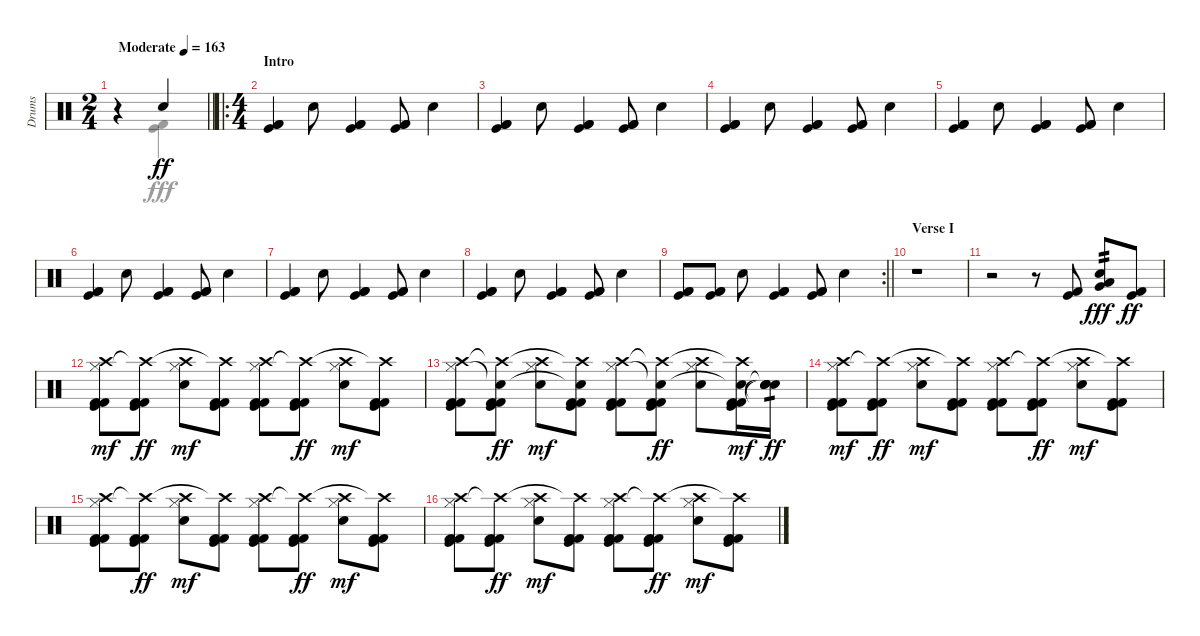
\track ("Drums" "Drums") {instrument percussion}
\staff {score}
\articulation defaults
\voice
\ts (2 4)
\tempo (163 "Moderate")
\clef neutral
\barLineRight lightlight
\ks c
r.4{dy ff} "Electric Snare (hit)".4 |
\ro
\ts (4 4)
\section ("" "Intro")
("Kick (hit) 2" "Kick (hit) 2" "Kick (hit)").4 "Electric Snare (hit)".8 ("Kick (hit) 2" "Kick (hit) 2" "Kick (hit)").4 ("Kick (hit) 2" "Kick (hit) 2" "Kick (hit)").8 "Electric Snare (hit)".4 |
("Kick (hit) 2" "Kick (hit) 2" "Kick (hit)").4 "Electric Snare (hit)".8 ("Kick (hit) 2" "Kick (hit) 2" "Kick (hit)").4 ("Kick (hit) 2" "Kick (hit) 2" "Kick (hit)").8 "Electric Snare (hit)".4 |
("Kick (hit) 2" "Kick (hit) 2" "Kick (hit)").4 "Electric Snare (hit)".8 ("Kick (hit) 2" "Kick (hit) 2" "Kick (hit)").4 ("Kick (hit) 2" "Kick (hit) 2" "Kick (hit)").8 "Electric Snare (hit)".4 |
("Kick (hit) 2" "Kick (hit) 2" "Kick (hit)").4 "Electric Snare (hit)".8 ("Kick (hit) 2" "Kick (hit) 2" "Kick (hit)").4 ("Kick (hit) 2" "Kick (hit) 2" "Kick (hit)").8 "Electric Snare (hit)".4 |
("Kick (hit) 2" "Kick (hit) 2" "Kick (hit)").4 "Electric Snare (hit)".8 ("Kick (hit) 2" "Kick (hit) 2" "Kick (hit)").4 ("Kick (hit) 2" "Kick (hit) 2" "Kick (hit)").8 "Electric Snare (hit)".4 |
("Kick (hit) 2" "Kick (hit) 2" "Kick (hit)").4 "Electric Snare (hit)".8 ("Kick (hit) 2" "Kick (hit) 2" "Kick (hit)").4 ("Kick (hit) 2" "Kick (hit) 2" "Kick (hit)").8 "Electric Snare (hit)".4 |
("Kick (hit) 2" "Kick (hit) 2" "Kick (hit)").4 "Electric Snare (hit)".8 ("Kick (hit) 2" "Kick (hit) 2" "Kick (hit)").4 ("Kick (hit) 2" "Kick (hit) 2" "Kick (hit)").8 "Electric Snare (hit)".4 |
\rc 2
\barLineRight lightlight
("Kick (hit) 2" "Kick (hit) 2" "Kick (hit)").8 ("Kick (hit) 2" "Kick (hit) 2" "Kick (hit)").8 "Electric Snare (hit)".8 ("Kick (hit) 2" "Kick (hit) 2" "Kick (hit)").4 ("Kick (hit) 2" "Kick (hit) 2" "Kick (hit)").8 "Electric Snare (hit)".4 |
\section ("" "Verse I")
r.1 |
r.2 r.8 ("Kick (hit) 2" "Kick (hit)").8 ("Very Low Tom (hit)" "Low Floor Tom (hit)" "Electric Snare (hit)").8{tp 2 dy fff} ("Kick (hit)" "Kick (hit) 2").8{dy ff} |
("Kick (hit) 2" "Kick (hit) 2" "Kick (hit)" "Hi-Hat (closed)" "Crash high (hit)").8{dy mf} ("Kick (hit) 2" "Kick (hit) 2" "Kick (hit)" "Crash high (hit)"{t}).8{dy ff} ("Electric Snare (hit)" "Hi-Hat (closed)" "Crash high (hit)").8{dy mf} ("Kick (hit) 2" "Kick (hit) 2" "Kick (hit)" "Crash high (hit)"{t}).8 ("Kick (hit) 2" "Kick (hit) 2" "Kick (hit)" "Hi-Hat (closed)" "Crash high (hit)").8 ("Kick (hit) 2" "Kick (hit) 2" "Kick (hit)" "Crash high (hit)"{t}).8{dy ff} ("Electric Snare (hit)" "Hi-Hat (closed)" "Crash high (hit)").8{dy mf} ("Kick (hit) 2" "Kick (hit) 2" "Kick (hit)" "Crash high (hit)"{t}).8 |
("Kick (hit) 2" "Kick (hit) 2" "Kick (hit)" "Hi-Hat (closed)" "Crash high (hit)").8 ("Kick (hit) 2" "Kick (hit) 2" "Kick (hit)" "Snare (hit)"{t} "Crash high (hit)"{t}).8{dy ff} ("Electric Snare (hit)" "Hi-Hat (closed)" "Crash high (hit)").8{dy mf} ("Kick (hit) 2" "Kick (hit) 2" "Kick (hit)" "Snare (hit)"{t} "Crash high (hit)"{t}).8 ("Kick (hit) 2" "Kick (hit) 2" "Kick (hit)" "Hi-Hat (closed)" "Crash high (hit)").8 ("Kick (hit) 2" "Kick (hit) 2" "Kick (hit)" "Snare (hit)"{t} "Crash high (hit)"{t}).8{dy ff} ("Electric Snare (hit)" "Hi-Hat (closed)" "Crash high (hit)").8 ("Kick (hit) 2" "Kick (hit) 2" "Kick (hit)" "Snare (hit)"{t} "Crash high (hit)"{t}).16{dy mf} ("Snare (hit)"{t} "Electric Snare (hit)" "Snare (hit)"{t} "Snare (hit)"{t}).16{tp 1 dy ff} |
("Kick (hit) 2" "Kick (hit) 2" "Kick (hit)" "Hi-Hat (closed)" "Crash high (hit)").8{dy mf} ("Kick (hit) 2" "Kick (hit) 2" "Kick (hit)" "Crash high (hit)"{t}).8{dy ff} ("Electric Snare (hit)" "Hi-Hat (closed)" "Crash high (hit)").8{dy mf} ("Kick (hit) 2" "Kick (hit) 2" "Kick (hit)" "Crash high (hit)"{t}).8 ("Kick (hit) 2" "Kick (hit) 2" "Kick (hit)" "Hi-Hat (closed)" "Crash high (hit)").8 ("Kick (hit) 2" "Kick (hit) 2" "Kick (hit)" "Crash high (hit)"{t}).8{dy ff} ("Electric Snare (hit)" "Hi-Hat (closed)" "Crash high (hit)").8{dy mf} ("Kick (hit) 2" "Kick (hit) 2" "Kick (hit)" "Crash high (hit)"{t}).8 |
("Kick (hit) 2" "Kick (hit) 2" "Kick (hit)" "Hi-Hat (closed)" "Crash high (hit)").8 ("Kick (hit) 2" "Kick (hit) 2" "Kick (hit)" "Crash high (hit)"{t}).8{dy ff} ("Electric Snare (hit)" "Hi-Hat (closed)" "Crash high (hit)").8{dy mf} ("Kick (hit) 2" "Kick (hit) 2" "Kick (hit)" "Crash high (hit)"{t}).8 ("Kick (hit) 2" "Kick (hit) 2" "Kick (hit)" "Hi-Hat (closed)" "Crash high (hit)").8 ("Kick (hit) 2" "Kick (hit) 2" "Kick (hit)" "Crash high (hit)"{t}).8{dy ff} ("Electric Snare (hit)" "Hi-Hat (closed)" "Crash high (hit)").8{dy mf} ("Kick (hit) 2" "Kick (hit) 2" "Kick (hit)" "Crash high (hit)"{t}).8 |
("Kick (hit) 2" "Kick (hit) 2" "Kick (hit)" "Hi-Hat (closed)" "Crash high (hit)").8 ("Kick (hit) 2" "Kick (hit) 2" "Kick (hit)" "Crash high (hit)"{t}).8{dy ff} ("Electric Snare (hit)" "Hi-Hat (closed)" "Crash high (hit)").8{dy mf} ("Kick (hit) 2" "Kick (hit) 2" "Kick (hit)" "Crash high (hit)"{t}).8 ("Kick (hit) 2" "Kick (hit) 2" "Kick (hit)" "Hi-Hat (closed)" "Crash high (hit)").8 ("Kick (hit) 2" "Kick (hit) 2" "Kick (hit)" "Crash high (hit)"{t}).8{dy ff} ("Electric Snare (hit)" "Hi-Hat (closed)" "Crash high (hit)").8{dy mf} ("Kick (hit) 2" "Kick (hit) 2" "Kick (hit)" "Crash high (hit)"{t}).8
\voice
\clef neutral
\ottava regular
\simile none
\barLineRight lightlight
\ks c
r.4{dy fff} ("Kick (hit) 2" "Kick (hit)").4 |
|
|
|
|
|
|
|
\barLineRight lightlight
|
|
|
|
|
|
|
